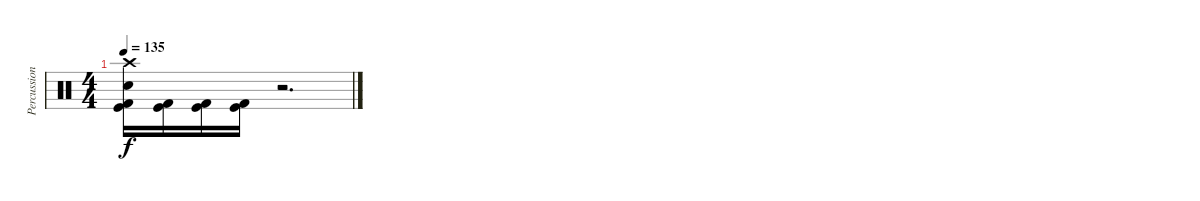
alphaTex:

\track ("Percussion" "Percussion") {instrument percussion}
\staff {score}
\articulation defaults
\ts (4 4)
\tempo 135
\clef neutral
\ks c
("Crash high (hit)" "Electric Snare (hit)" "Kick (hit)" "Kick (hit) 2").16{dy f} ("Kick (hit)" "Kick (hit) 2").16 ("Kick (hit)" "Kick (hit) 2").16 ("Kick (hit)" "Kick (hit) 2").16 r.2{d}
